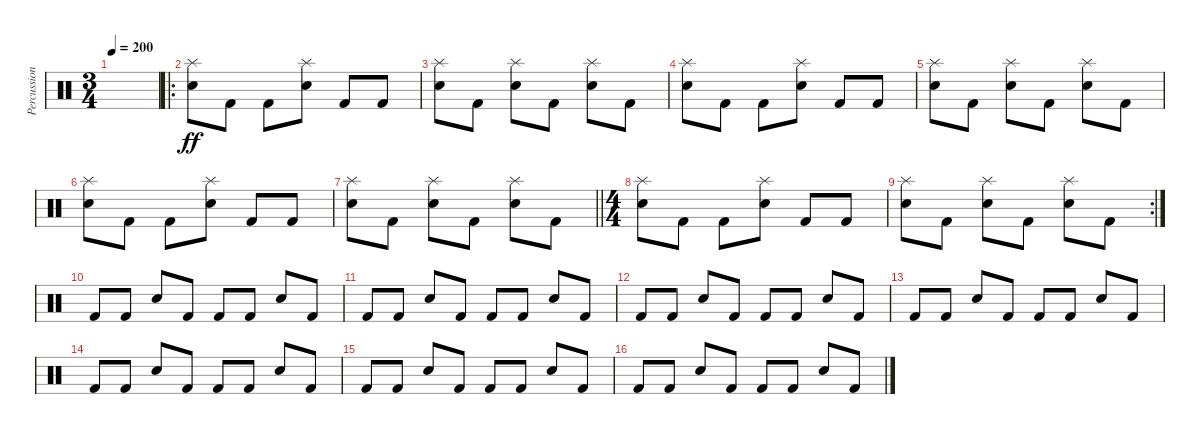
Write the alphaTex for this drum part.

\track ("Percussion" "Percussion") {instrument percussion}
\staff {score}
\articulation defaults
\ts (3 4)
\tempo 200
\clef neutral
\ks c
|
\ro
("Splash (hit)" "Electric Snare (hit)").8{dy ff} "Kick (hit) 2".8 "Kick (hit) 2".8 ("Splash (hit)" "Electric Snare (hit)").8 "Kick (hit) 2".8 "Kick (hit) 2".8 |
("Splash (hit)" "Electric Snare (hit)").8 "Kick (hit) 2".8 ("Splash (hit)" "Electric Snare (hit)").8 "Kick (hit) 2".8 ("Splash (hit)" "Electric Snare (hit)").8 "Kick (hit) 2".8 |
("Splash (hit)" "Electric Snare (hit)").8 "Kick (hit) 2".8 "Kick (hit) 2".8 ("Splash (hit)" "Electric Snare (hit)").8 "Kick (hit) 2".8 "Kick (hit) 2".8 |
("Splash (hit)" "Electric Snare (hit)").8 "Kick (hit) 2".8 ("Splash (hit)" "Electric Snare (hit)").8 "Kick (hit) 2".8 ("Splash (hit)" "Electric Snare (hit)").8 "Kick (hit) 2".8 |
("Splash (hit)" "Electric Snare (hit)").8 "Kick (hit) 2".8 "Kick (hit) 2".8 ("Splash (hit)" "Electric Snare (hit)").8 "Kick (hit) 2".8 "Kick (hit) 2".8 |
\barLineRight lightlight
("Splash (hit)" "Electric Snare (hit)").8 "Kick (hit) 2".8 ("Splash (hit)" "Electric Snare (hit)").8 "Kick (hit) 2".8 ("Splash (hit)" "Electric Snare (hit)").8 "Kick (hit) 2".8 |
\ts (4 4)
("Splash (hit)" "Electric Snare (hit)").8 "Kick (hit) 2".8 "Kick (hit) 2".8 ("Splash (hit)" "Electric Snare (hit)").8 "Kick (hit) 2".8 "Kick (hit) 2".8 |
\rc 2
("Splash (hit)" "Electric Snare (hit)").8 "Kick (hit) 2".8 ("Splash (hit)" "Electric Snare (hit)").8 "Kick (hit) 2".8 ("Splash (hit)" "Electric Snare (hit)").8 "Kick (hit) 2".8 |
"Kick (hit) 2".8 "Kick (hit) 2".8 "Electric Snare (hit)".8 "Kick (hit) 2".8 "Kick (hit) 2".8 "Kick (hit) 2".8 "Electric Snare (hit)".8 "Kick (hit) 2".8 |
"Kick (hit) 2".8 "Kick (hit) 2".8 "Electric Snare (hit)".8 "Kick (hit) 2".8 "Kick (hit) 2".8 "Kick (hit) 2".8 "Electric Snare (hit)".8 "Kick (hit) 2".8 |
"Kick (hit) 2".8 "Kick (hit) 2".8 "Electric Snare (hit)".8 "Kick (hit) 2".8 "Kick (hit) 2".8 "Kick (hit) 2".8 "Electric Snare (hit)".8 "Kick (hit) 2".8 |
"Kick (hit) 2".8 "Kick (hit) 2".8 "Electric Snare (hit)".8 "Kick (hit) 2".8 "Kick (hit) 2".8 "Kick (hit) 2".8 "Electric Snare (hit)".8 "Kick (hit) 2".8 |
"Kick (hit) 2".8 "Kick (hit) 2".8 "Electric Snare (hit)".8 "Kick (hit) 2".8 "Kick (hit) 2".8 "Kick (hit) 2".8 "Electric Snare (hit)".8 "Kick (hit) 2".8 |
"Kick (hit) 2".8 "Kick (hit) 2".8 "Electric Snare (hit)".8 "Kick (hit) 2".8 "Kick (hit) 2".8 "Kick (hit) 2".8 "Electric Snare (hit)".8 "Kick (hit) 2".8 |
"Kick (hit) 2".8 "Kick (hit) 2".8 "Electric Snare (hit)".8 "Kick (hit) 2".8 "Kick (hit) 2".8 "Kick (hit) 2".8 "Electric Snare (hit)".8 "Kick (hit) 2".8
